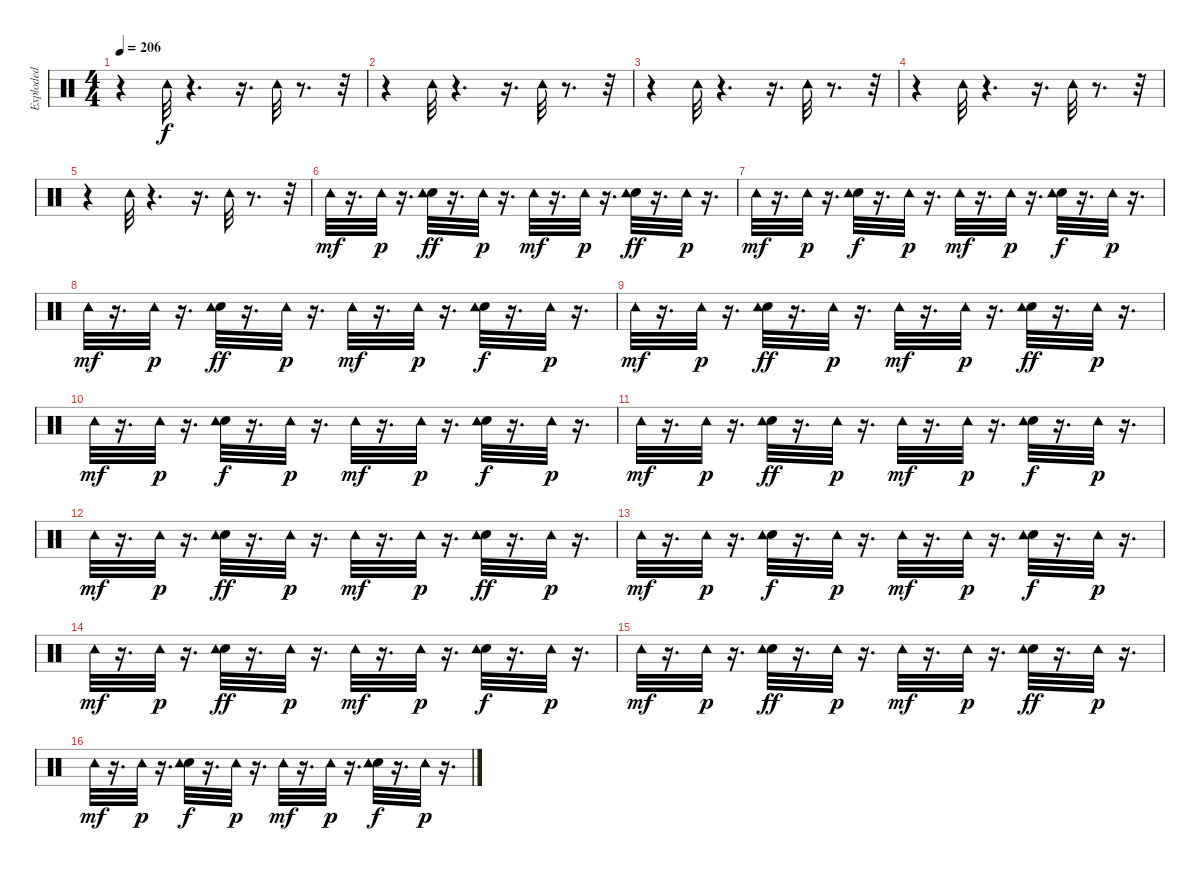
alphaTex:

\track ("Exploded" "Exploded") {instrument percussion}
\staff {score}
\articulation defaults
\ts (4 4)
\tempo 206
\clef neutral
\ks c
r.4{dy f} "Tambourine (hit)".32 r.4{d} r.16{d} "Tambourine (hit)".32 r.8{d} r.32 |
r.4 "Tambourine (hit)".32 r.4{d} r.16{d} "Tambourine (hit)".32 r.8{d} r.32 |
r.4 "Tambourine (hit)".32 r.4{d} r.16{d} "Tambourine (hit)".32 r.8{d} r.32 |
r.4 "Tambourine (hit)".32 r.4{d} r.16{d} "Tambourine (hit)".32 r.8{d} r.32 |
r.4 "Tambourine (hit)".32 r.4{d} r.16{d} "Tambourine (hit)".32 r.8{d} r.32 |
"Tambourine (hit)".32{dy mf} r.16{d} "Tambourine (hit)".32{dy p} r.16{d} ("Hand Clap (hit)" "Tambourine (hit)").32{dy ff} r.16{d} "Tambourine (hit)".32{dy p} r.16{d} "Tambourine (hit)".32{dy mf} r.16{d} "Tambourine (hit)".32{dy p} r.16{d} ("Hand Clap (hit)" "Tambourine (hit)").32{dy ff} r.16{d} "Tambourine (hit)".32{dy p} r.16{d} |
"Tambourine (hit)".32{dy mf} r.16{d} "Tambourine (hit)".32{dy p} r.16{d} ("Hand Clap (hit)" "Tambourine (hit)").32{dy f} r.16{d} "Tambourine (hit)".32{dy p} r.16{d} "Tambourine (hit)".32{dy mf} r.16{d} "Tambourine (hit)".32{dy p} r.16{d} ("Hand Clap (hit)" "Tambourine (hit)").32{dy f} r.16{d} "Tambourine (hit)".32{dy p} r.16{d} |
"Tambourine (hit)".32{dy mf} r.16{d} "Tambourine (hit)".32{dy p} r.16{d} ("Hand Clap (hit)" "Tambourine (hit)").32{dy ff} r.16{d} "Tambourine (hit)".32{dy p} r.16{d} "Tambourine (hit)".32{dy mf} r.16{d} "Tambourine (hit)".32{dy p} r.16{d} ("Hand Clap (hit)" "Tambourine (hit)").32{dy f} r.16{d} "Tambourine (hit)".32{dy p} r.16{d} |
"Tambourine (hit)".32{dy mf} r.16{d} "Tambourine (hit)".32{dy p} r.16{d} ("Hand Clap (hit)" "Tambourine (hit)").32{dy ff} r.16{d} "Tambourine (hit)".32{dy p} r.16{d} "Tambourine (hit)".32{dy mf} r.16{d} "Tambourine (hit)".32{dy p} r.16{d} ("Hand Clap (hit)" "Tambourine (hit)").32{dy ff} r.16{d} "Tambourine (hit)".32{dy p} r.16{d} |
"Tambourine (hit)".32{dy mf} r.16{d} "Tambourine (hit)".32{dy p} r.16{d} ("Hand Clap (hit)" "Tambourine (hit)").32{dy f} r.16{d} "Tambourine (hit)".32{dy p} r.16{d} "Tambourine (hit)".32{dy mf} r.16{d} "Tambourine (hit)".32{dy p} r.16{d} ("Hand Clap (hit)" "Tambourine (hit)").32{dy f} r.16{d} "Tambourine (hit)".32{dy p} r.16{d} |
"Tambourine (hit)".32{dy mf} r.16{d} "Tambourine (hit)".32{dy p} r.16{d} ("Hand Clap (hit)" "Tambourine (hit)").32{dy ff} r.16{d} "Tambourine (hit)".32{dy p} r.16{d} "Tambourine (hit)".32{dy mf} r.16{d} "Tambourine (hit)".32{dy p} r.16{d} ("Hand Clap (hit)" "Tambourine (hit)").32{dy f} r.16{d} "Tambourine (hit)".32{dy p} r.16{d} |
"Tambourine (hit)".32{dy mf} r.16{d} "Tambourine (hit)".32{dy p} r.16{d} ("Hand Clap (hit)" "Tambourine (hit)").32{dy ff} r.16{d} "Tambourine (hit)".32{dy p} r.16{d} "Tambourine (hit)".32{dy mf} r.16{d} "Tambourine (hit)".32{dy p} r.16{d} ("Hand Clap (hit)" "Tambourine (hit)").32{dy ff} r.16{d} "Tambourine (hit)".32{dy p} r.16{d} |
"Tambourine (hit)".32{dy mf} r.16{d} "Tambourine (hit)".32{dy p} r.16{d} ("Hand Clap (hit)" "Tambourine (hit)").32{dy f} r.16{d} "Tambourine (hit)".32{dy p} r.16{d} "Tambourine (hit)".32{dy mf} r.16{d} "Tambourine (hit)".32{dy p} r.16{d} ("Hand Clap (hit)" "Tambourine (hit)").32{dy f} r.16{d} "Tambourine (hit)".32{dy p} r.16{d} |
"Tambourine (hit)".32{dy mf} r.16{d} "Tambourine (hit)".32{dy p} r.16{d} ("Hand Clap (hit)" "Tambourine (hit)").32{dy ff} r.16{d} "Tambourine (hit)".32{dy p} r.16{d} "Tambourine (hit)".32{dy mf} r.16{d} "Tambourine (hit)".32{dy p} r.16{d} ("Hand Clap (hit)" "Tambourine (hit)").32{dy f} r.16{d} "Tambourine (hit)".32{dy p} r.16{d} |
"Tambourine (hit)".32{dy mf} r.16{d} "Tambourine (hit)".32{dy p} r.16{d} ("Hand Clap (hit)" "Tambourine (hit)").32{dy ff} r.16{d} "Tambourine (hit)".32{dy p} r.16{d} "Tambourine (hit)".32{dy mf} r.16{d} "Tambourine (hit)".32{dy p} r.16{d} ("Hand Clap (hit)" "Tambourine (hit)").32{dy ff} r.16{d} "Tambourine (hit)".32{dy p} r.16{d} |
"Tambourine (hit)".32{dy mf} r.16{d} "Tambourine (hit)".32{dy p} r.16{d} ("Hand Clap (hit)" "Tambourine (hit)").32{dy f} r.16{d} "Tambourine (hit)".32{dy p} r.16{d} "Tambourine (hit)".32{dy mf} r.16{d} "Tambourine (hit)".32{dy p} r.16{d} ("Hand Clap (hit)" "Tambourine (hit)").32{dy f} r.16{d} "Tambourine (hit)".32{dy p} r.16{d}
